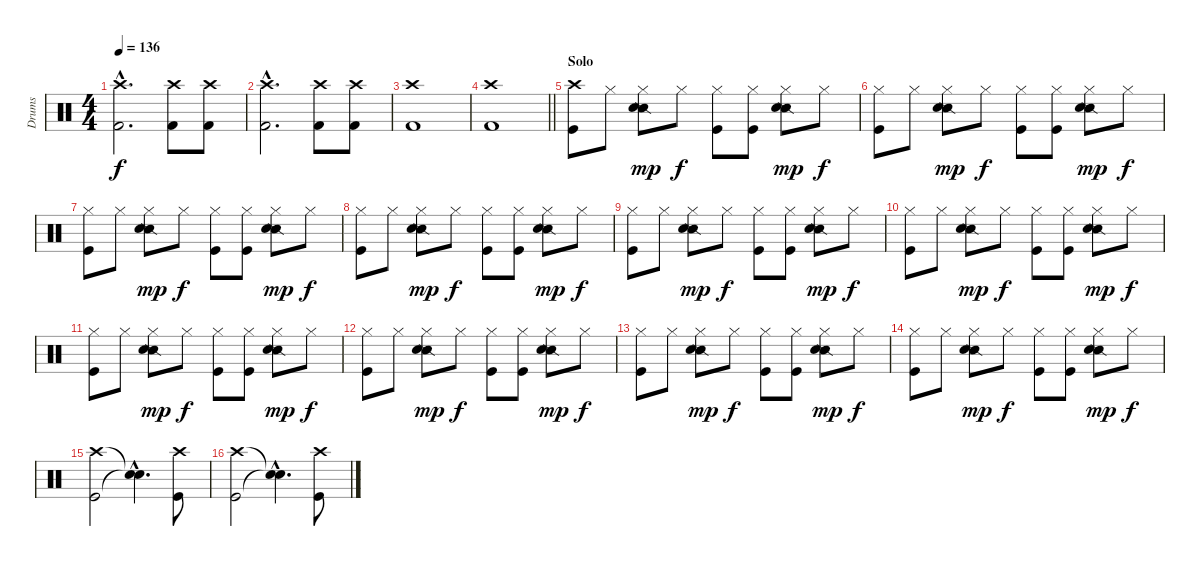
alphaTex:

\track ("Drums" "Drums") {instrument percussion}
\staff {score}
\articulation defaults
\ts (4 4)
\tempo 136
\clef neutral
\ks c
("Crash high (hit)"{hac} "Kick (hit) 2"{hac}).2{d dy f} ("Crash high (hit)" "Kick (hit) 2").8 ("Crash high (hit)" "Kick (hit) 2").8 |
("Crash high (hit)"{hac} "Kick (hit) 2"{hac}).2{d} ("Crash high (hit)" "Kick (hit) 2").8 ("Crash high (hit)" "Kick (hit) 2").8 |
("Crash high (hit)" "Kick (hit) 2").1 |
\barLineRight lightlight
("Crash high (hit)" "Kick (hit) 2").1 |
\section ("" "Solo")
("Crash high (hit)" "Kick (hit)").8 "Hi-Hat (closed)".8 ("Hi-Hat (closed)" "Snare (side stick) 2" "Snare (hit) 2").8{dy mp} "Hi-Hat (closed)".8{dy f} ("Hi-Hat (closed)" "Kick (hit)").8 ("Hi-Hat (closed)" "Kick (hit)").8 ("Hi-Hat (closed)" "Snare (side stick) 2" "Snare (hit) 2").8{dy mp} "Hi-Hat (closed)".8{dy f} |
("Hi-Hat (closed)" "Kick (hit)").8 "Hi-Hat (closed)".8 ("Hi-Hat (closed)" "Snare (side stick) 2" "Snare (hit) 2").8{dy mp} "Hi-Hat (closed)".8{dy f} ("Hi-Hat (closed)" "Kick (hit)").8 ("Hi-Hat (closed)" "Kick (hit)").8 ("Hi-Hat (closed)" "Snare (side stick) 2" "Snare (hit) 2").8{dy mp} "Hi-Hat (closed)".8{dy f} |
("Hi-Hat (closed)" "Kick (hit)").8 "Hi-Hat (closed)".8 ("Hi-Hat (closed)" "Snare (side stick) 2" "Snare (hit) 2").8{dy mp} "Hi-Hat (closed)".8{dy f} ("Hi-Hat (closed)" "Kick (hit)").8 ("Hi-Hat (closed)" "Kick (hit)").8 ("Hi-Hat (closed)" "Snare (side stick) 2" "Snare (hit) 2").8{dy mp} "Hi-Hat (closed)".8{dy f} |
("Hi-Hat (closed)" "Kick (hit)").8 "Hi-Hat (closed)".8 ("Hi-Hat (closed)" "Snare (side stick) 2" "Snare (hit) 2").8{dy mp} "Hi-Hat (closed)".8{dy f} ("Hi-Hat (closed)" "Kick (hit)").8 ("Hi-Hat (closed)" "Kick (hit)").8 ("Hi-Hat (closed)" "Snare (side stick) 2" "Snare (hit) 2").8{dy mp} "Hi-Hat (closed)".8{dy f} |
("Hi-Hat (closed)" "Kick (hit)").8 "Hi-Hat (closed)".8 ("Hi-Hat (closed)" "Snare (side stick) 2" "Snare (hit) 2").8{dy mp} "Hi-Hat (closed)".8{dy f} ("Hi-Hat (closed)" "Kick (hit)").8 ("Hi-Hat (closed)" "Kick (hit)").8 ("Hi-Hat (closed)" "Snare (side stick) 2" "Snare (hit) 2").8{dy mp} "Hi-Hat (closed)".8{dy f} |
("Hi-Hat (closed)" "Kick (hit)").8 "Hi-Hat (closed)".8 ("Hi-Hat (closed)" "Snare (side stick) 2" "Snare (hit) 2").8{dy mp} "Hi-Hat (closed)".8{dy f} ("Hi-Hat (closed)" "Kick (hit)").8 ("Hi-Hat (closed)" "Kick (hit)").8 ("Hi-Hat (closed)" "Snare (side stick) 2" "Snare (hit) 2").8{dy mp} "Hi-Hat (closed)".8{dy f} |
("Hi-Hat (closed)" "Kick (hit)").8 "Hi-Hat (closed)".8 ("Hi-Hat (closed)" "Snare (side stick) 2" "Snare (hit) 2").8{dy mp} "Hi-Hat (closed)".8{dy f} ("Hi-Hat (closed)" "Kick (hit)").8 ("Hi-Hat (closed)" "Kick (hit)").8 ("Hi-Hat (closed)" "Snare (side stick) 2" "Snare (hit) 2").8{dy mp} "Hi-Hat (closed)".8{dy f} |
("Hi-Hat (closed)" "Kick (hit)").8 "Hi-Hat (closed)".8 ("Hi-Hat (closed)" "Snare (side stick) 2" "Snare (hit) 2").8{dy mp} "Hi-Hat (closed)".8{dy f} ("Hi-Hat (closed)" "Kick (hit)").8 ("Hi-Hat (closed)" "Kick (hit)").8 ("Hi-Hat (closed)" "Snare (side stick) 2" "Snare (hit) 2").8{dy mp} "Hi-Hat (closed)".8{dy f} |
("Hi-Hat (closed)" "Kick (hit)").8 "Hi-Hat (closed)".8 ("Hi-Hat (closed)" "Snare (side stick) 2" "Snare (hit) 2").8{dy mp} "Hi-Hat (closed)".8{dy f} ("Hi-Hat (closed)" "Kick (hit)").8 ("Hi-Hat (closed)" "Kick (hit)").8 ("Hi-Hat (closed)" "Snare (side stick) 2" "Snare (hit) 2").8{dy mp} "Hi-Hat (closed)".8{dy f} |
("Hi-Hat (closed)" "Kick (hit)").8 "Hi-Hat (closed)".8 ("Hi-Hat (closed)" "Snare (side stick) 2" "Snare (hit) 2").8{dy mp} "Hi-Hat (closed)".8{dy f} ("Hi-Hat (closed)" "Kick (hit)").8 ("Hi-Hat (closed)" "Kick (hit)").8 ("Hi-Hat (closed)" "Snare (side stick) 2" "Snare (hit) 2").8{dy mp} "Hi-Hat (closed)".8{dy f} |
("Crash high (hit)" "Kick (hit)").2 ("Snare (hit)"{hac t} "Snare (hit)"{hac t}).4{d} ("Crash high (hit)" "Kick (hit)").8 |
("Crash high (hit)" "Kick (hit)").2 ("Snare (hit)"{hac t} "Snare (hit)"{hac t}).4{d} ("Crash high (hit)" "Kick (hit)").8
